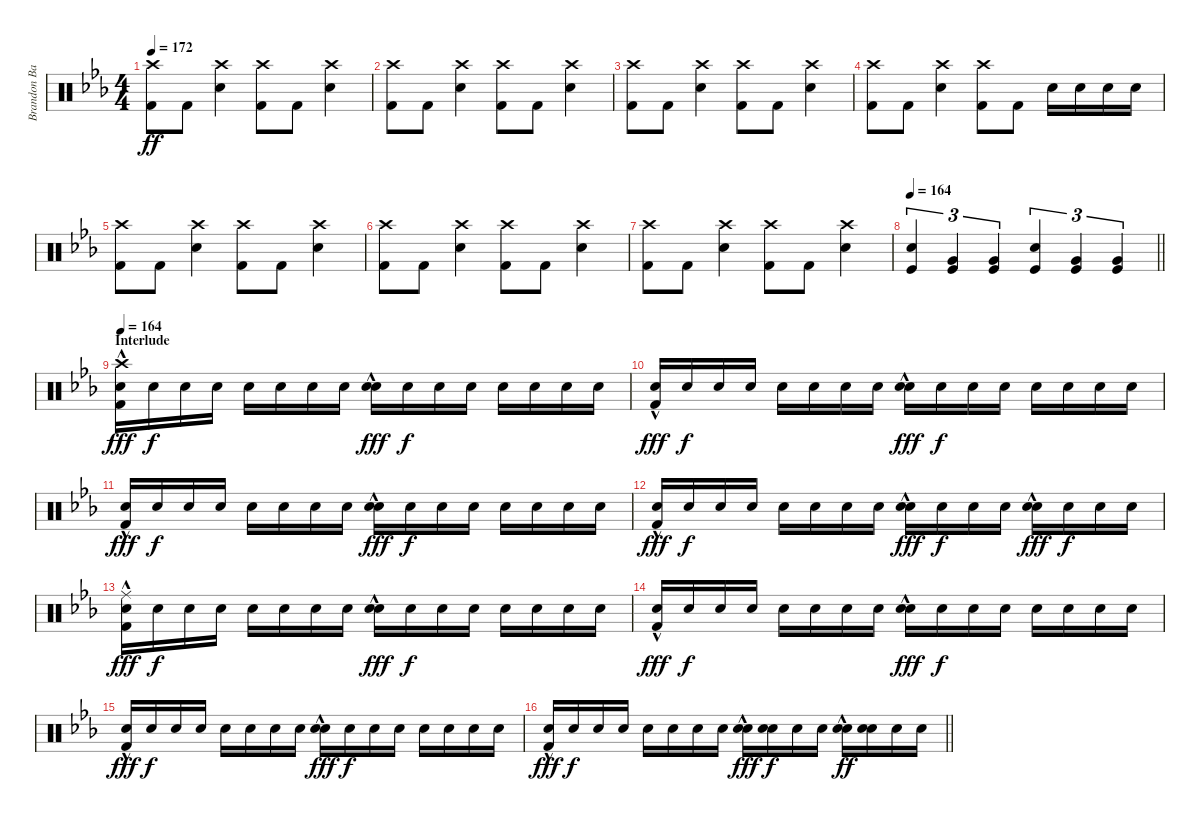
\track ("Brandon Barnes - Drums" "Brandon Ba") {instrument percussion}
\staff {score}
\articulation defaults
\ts (4 4)
\tempo 172
\clef neutral
\ks eb
("Crash high (hit)" "Kick (hit) 2").8{dy ff} "Kick (hit) 2".8 ("Snare (hit) 2" "Crash high (hit)").4 ("Crash high (hit)" "Kick (hit) 2").8 "Kick (hit) 2".8 ("Snare (hit) 2" "Crash high (hit)").4 |
("Crash high (hit)" "Kick (hit) 2").8 "Kick (hit) 2".8 ("Snare (hit) 2" "Crash high (hit)").4 ("Crash high (hit)" "Kick (hit) 2").8 "Kick (hit) 2".8 ("Snare (hit) 2" "Crash high (hit)").4 |
("Crash high (hit)" "Kick (hit) 2").8 "Kick (hit) 2".8 ("Snare (hit) 2" "Crash high (hit)").4 ("Crash high (hit)" "Kick (hit) 2").8 "Kick (hit) 2".8 ("Snare (hit) 2" "Crash high (hit)").4 |
("Crash high (hit)" "Kick (hit) 2").8 "Kick (hit) 2".8 ("Snare (hit) 2" "Crash high (hit)").4 ("Crash high (hit)" "Kick (hit) 2").8 "Kick (hit) 2".8 "Snare (hit) 2".16 "Snare (hit) 2".16 "Snare (hit) 2".16 "Snare (hit) 2".16 |
("Crash high (hit)" "Kick (hit) 2").8 "Kick (hit) 2".8 ("Snare (hit) 2" "Crash high (hit)").4 ("Crash high (hit)" "Kick (hit) 2").8 "Kick (hit) 2".8 ("Snare (hit) 2" "Crash high (hit)").4 |
("Crash high (hit)" "Kick (hit) 2").8 "Kick (hit) 2".8 ("Snare (hit) 2" "Crash high (hit)").4 ("Crash high (hit)" "Kick (hit) 2").8 "Kick (hit) 2".8 ("Snare (hit) 2" "Crash high (hit)").4 |
("Crash high (hit)" "Kick (hit) 2").8 "Kick (hit) 2".8 ("Snare (hit) 2" "Crash high (hit)").4 ("Crash high (hit)" "Kick (hit) 2").8 "Kick (hit) 2".8 ("Snare (hit) 2" "Crash high (hit)").4 |
\tempo 164
\barLineRight lightlight
("Snare (hit) 2" "Kick (hit)").4{tu (3 2)} ("Very Low Tom (hit)" "Kick (hit)").4{tu (3 2)} ("Very Low Tom (hit)" "Kick (hit)").4{tu (3 2)} ("Snare (hit) 2" "Kick (hit)").4{tu (3 2)} ("Very Low Tom (hit)" "Kick (hit)").4{tu (3 2)} ("Very Low Tom (hit)" "Kick (hit)").4{tu (3 2)} |
\section ("" "Interlude")
\tempo 164
("Crash high (hit)" "Kick (hit) 2"{hac} "Electric Snare (hit)").16{dy fff} "Electric Snare (hit)".16{dy f} "Electric Snare (hit)".16 "Electric Snare (hit)".16 "Electric Snare (hit)".16 "Electric Snare (hit)".16 "Electric Snare (hit)".16 "Electric Snare (hit)".16 ("Snare (hit) 2"{hac} "Electric Snare (hit)").16{dy fff} "Electric Snare (hit)".16{dy f} "Electric Snare (hit)".16 "Electric Snare (hit)".16 "Electric Snare (hit)".16 "Electric Snare (hit)".16 "Electric Snare (hit)".16 "Electric Snare (hit)".16 |
("Kick (hit) 2"{hac} "Electric Snare (hit)").16{dy fff} "Electric Snare (hit)".16{dy f} "Electric Snare (hit)".16 "Electric Snare (hit)".16 "Electric Snare (hit)".16 "Electric Snare (hit)".16 "Electric Snare (hit)".16 "Electric Snare (hit)".16 ("Snare (hit) 2"{hac} "Electric Snare (hit)").16{dy fff} "Electric Snare (hit)".16{dy f} "Electric Snare (hit)".16 "Electric Snare (hit)".16 "Electric Snare (hit)".16 "Electric Snare (hit)".16 "Electric Snare (hit)".16 "Electric Snare (hit)".16 |
("Kick (hit) 2"{hac} "Electric Snare (hit)").16{dy fff} "Electric Snare (hit)".16{dy f} "Electric Snare (hit)".16 "Electric Snare (hit)".16 "Electric Snare (hit)".16 "Electric Snare (hit)".16 "Electric Snare (hit)".16 "Electric Snare (hit)".16 ("Snare (hit) 2"{hac} "Electric Snare (hit)").16{dy fff} "Electric Snare (hit)".16{dy f} "Electric Snare (hit)".16 "Electric Snare (hit)".16 "Electric Snare (hit)".16 "Electric Snare (hit)".16 "Electric Snare (hit)".16 "Electric Snare (hit)".16 |
("Kick (hit) 2"{hac} "Electric Snare (hit)").16{dy fff} "Electric Snare (hit)".16{dy f} "Electric Snare (hit)".16 "Electric Snare (hit)".16 "Electric Snare (hit)".16 "Electric Snare (hit)".16 "Electric Snare (hit)".16 "Electric Snare (hit)".16 ("Snare (hit) 2"{hac} "Electric Snare (hit)").16{dy fff} "Electric Snare (hit)".16{dy f} "Electric Snare (hit)".16 "Electric Snare (hit)".16 ("Electric Snare (hit)"{hac} "Snare (hit) 2").16{dy fff} "Electric Snare (hit)".16{dy f} "Electric Snare (hit)".16 "Electric Snare (hit)".16 |
("Ride (middle)"{hac} "Kick (hit) 2"{hac} "Electric Snare (hit)").16{dy fff} "Electric Snare (hit)".16{dy f} "Electric Snare (hit)".16 "Electric Snare (hit)".16 "Electric Snare (hit)".16 "Electric Snare (hit)".16 "Electric Snare (hit)".16 "Electric Snare (hit)".16 ("Snare (hit) 2"{hac} "Electric Snare (hit)").16{dy fff} "Electric Snare (hit)".16{dy f} "Electric Snare (hit)".16 "Electric Snare (hit)".16 "Electric Snare (hit)".16 "Electric Snare (hit)".16 "Electric Snare (hit)".16 "Electric Snare (hit)".16 |
("Kick (hit) 2"{hac} "Electric Snare (hit)").16{dy fff} "Electric Snare (hit)".16{dy f} "Electric Snare (hit)".16 "Electric Snare (hit)".16 "Electric Snare (hit)".16 "Electric Snare (hit)".16 "Electric Snare (hit)".16 "Electric Snare (hit)".16 ("Snare (hit) 2"{hac} "Electric Snare (hit)").16{dy fff} "Electric Snare (hit)".16{dy f} "Electric Snare (hit)".16 "Electric Snare (hit)".16 "Electric Snare (hit)".16 "Electric Snare (hit)".16 "Electric Snare (hit)".16 "Electric Snare (hit)".16 |
("Kick (hit) 2"{hac} "Electric Snare (hit)").16{dy fff} "Electric Snare (hit)".16{dy f} "Electric Snare (hit)".16 "Electric Snare (hit)".16 "Electric Snare (hit)".16 "Electric Snare (hit)".16 "Electric Snare (hit)".16 "Electric Snare (hit)".16 ("Snare (hit) 2"{hac} "Electric Snare (hit)").16{dy fff} "Electric Snare (hit)".16{dy f} "Electric Snare (hit)".16 "Electric Snare (hit)".16 "Electric Snare (hit)".16 "Electric Snare (hit)".16 "Electric Snare (hit)".16 "Electric Snare (hit)".16 |
\barLineRight lightlight
("Kick (hit) 2"{hac} "Electric Snare (hit)").16{dy fff} "Electric Snare (hit)".16{dy f} "Electric Snare (hit)".16 "Electric Snare (hit)".16 "Electric Snare (hit)".16 "Electric Snare (hit)".16 "Electric Snare (hit)".16 "Electric Snare (hit)".16 ("Snare (hit) 2"{hac} "Electric Snare (hit)").16{dy fff} ("Electric Snare (hit)" "Electric Snare (hit)").16{dy f} "Electric Snare (hit)".16 "Electric Snare (hit)".16 ("Electric Snare (hit)"{hac} "Snare (hit) 2").16{dy ff} ("Electric Snare (hit)" "Electric Snare (hit)").16 "Electric Snare (hit)".16 "Electric Snare (hit)".16
